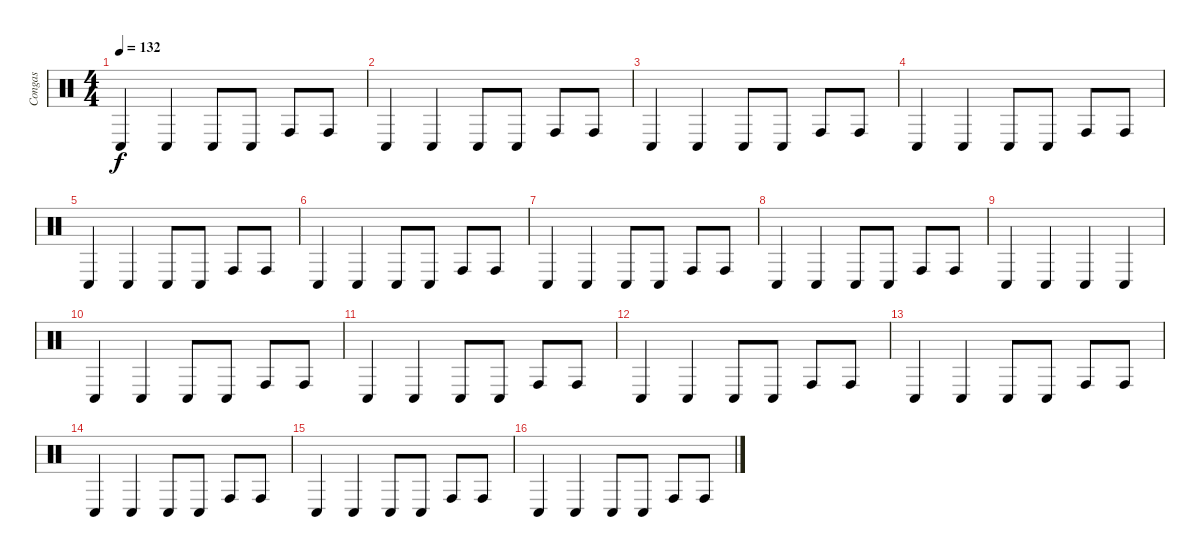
\track ("Congas" "Congas") {instrument percussion}
\staff {score}
\articulation defaults
\ts (4 4)
\tempo 132
\clef neutral
\ks c "Conga low (hit)".4{dy f} "Conga low (hit)".4 "Conga low (hit)".8 "Conga low (hit)".8 "Conga high (hit)".8 "Conga high (hit)".8
|
"Conga low (hit)".4 "Conga low (hit)".4 "Conga low (hit)".8 "Conga low (hit)".8 "Conga high (hit)".8 "Conga high (hit)".8 |
"Conga low (hit)".4 "Conga low (hit)".4 "Conga low (hit)".8 "Conga low (hit)".8 "Conga high (hit)".8 "Conga high (hit)".8 |
"Conga low (hit)".4 "Conga low (hit)".4 "Conga low (hit)".8 "Conga low (hit)".8 "Conga high (hit)".8 "Conga high (hit)".8 |
"Conga low (hit)".4 "Conga low (hit)".4 "Conga low (hit)".8 "Conga low (hit)".8 "Conga high (hit)".8 "Conga high (hit)".8 |
"Conga low (hit)".4 "Conga low (hit)".4 "Conga low (hit)".8 "Conga low (hit)".8 "Conga high (hit)".8 "Conga high (hit)".8 |
"Conga low (hit)".4 "Conga low (hit)".4 "Conga low (hit)".8 "Conga low (hit)".8 "Conga high (hit)".8 "Conga high (hit)".8 |
"Conga low (hit)".4 "Conga low (hit)".4 "Conga low (hit)".8 "Conga low (hit)".8 "Conga high (hit)".8 "Conga high (hit)".8 |
"Conga low (hit)".4 "Conga low (hit)".4 "Conga low (hit)".4 "Conga low (hit)".4 |
"Conga low (hit)".4 "Conga low (hit)".4 "Conga low (hit)".8 "Conga low (hit)".8 "Conga high (hit)".8 "Conga high (hit)".8 |
"Conga low (hit)".4 "Conga low (hit)".4 "Conga low (hit)".8 "Conga low (hit)".8 "Conga high (hit)".8 "Conga high (hit)".8 |
"Conga low (hit)".4 "Conga low (hit)".4 "Conga low (hit)".8 "Conga low (hit)".8 "Conga high (hit)".8 "Conga high (hit)".8 |
"Conga low (hit)".4 "Conga low (hit)".4 "Conga low (hit)".8 "Conga low (hit)".8 "Conga high (hit)".8 "Conga high (hit)".8 |
"Conga low (hit)".4 "Conga low (hit)".4 "Conga low (hit)".8 "Conga low (hit)".8 "Conga high (hit)".8 "Conga high (hit)".8 |
"Conga low (hit)".4 "Conga low (hit)".4 "Conga low (hit)".8 "Conga low (hit)".8 "Conga high (hit)".8 "Conga high (hit)".8 |
"Conga low (hit)".4 "Conga low (hit)".4 "Conga low (hit)".8 "Conga low (hit)".8 "Conga high (hit)".8 "Conga high (hit)".8
